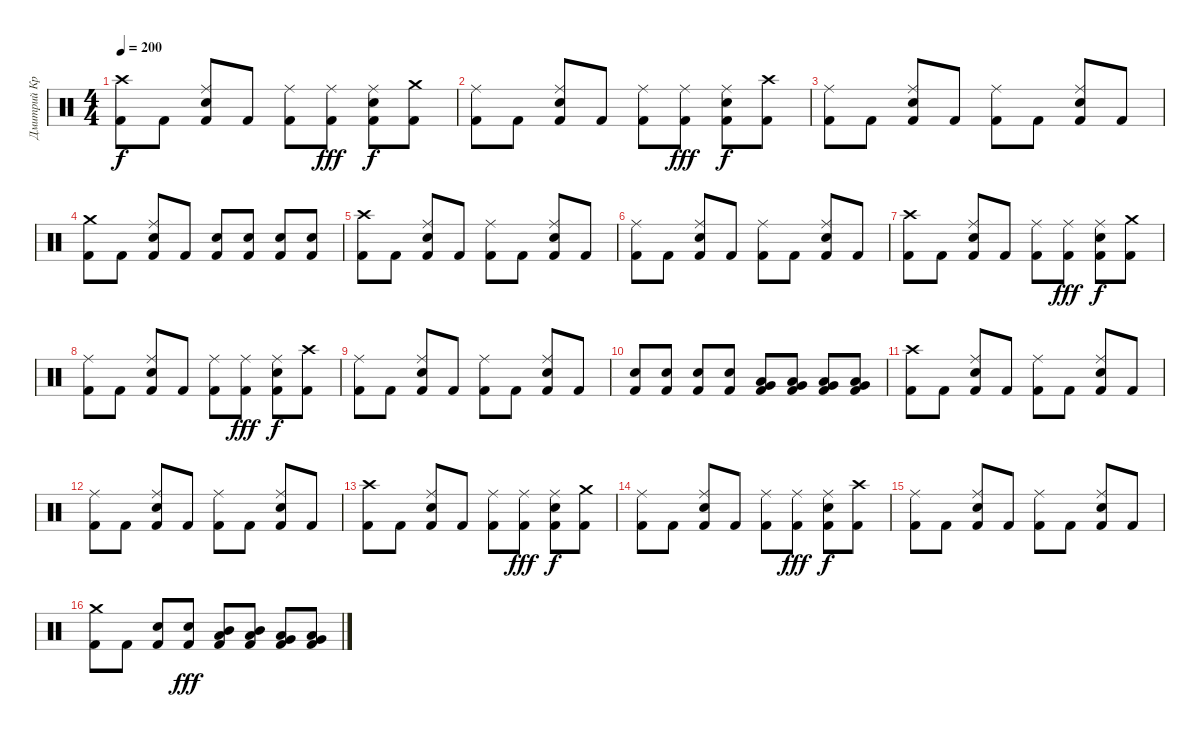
\track ("Дмитрий Кривенков" "Дмитрий Кр") {instrument percussion}
\staff {score}
\articulation defaults
\ts (4 4)
\tempo 200
\clef neutral
\ks c
("Crash high (hit)" "Kick (hit) 2").8{dy f} "Kick (hit) 2".8 ("Ride (middle)" "Electric Snare (hit)" "Kick (hit) 2").8 "Kick (hit) 2".8 ("Ride (middle)" "Kick (hit) 2").8 ("Ride (middle)" "Kick (hit) 2").8{dy fff} ("Ride (middle)" "Electric Snare (hit)" "Kick (hit) 2").8{dy f} ("Crash medium (hit)" "Kick (hit) 2").8 |
("Ride (middle)" "Kick (hit) 2").8 "Kick (hit) 2".8 ("Ride (middle)" "Electric Snare (hit)" "Kick (hit) 2").8 "Kick (hit) 2".8 ("Ride (middle)" "Kick (hit) 2").8 ("Ride (middle)" "Kick (hit) 2").8{dy fff} ("Ride (middle)" "Electric Snare (hit)" "Kick (hit) 2").8{dy f} ("Crash high (hit)" "Kick (hit) 2").8 |
("Ride (middle)" "Kick (hit) 2").8 "Kick (hit) 2".8 ("Ride (middle)" "Electric Snare (hit)" "Kick (hit) 2").8 "Kick (hit) 2".8 ("Ride (middle)" "Kick (hit) 2").8 "Kick (hit) 2".8 ("Ride (middle)" "Electric Snare (hit)" "Kick (hit) 2").8 "Kick (hit) 2".8 |
("Crash medium (hit)" "Kick (hit) 2").8 "Kick (hit) 2".8 ("Ride (middle)" "Electric Snare (hit)" "Kick (hit) 2").8 "Kick (hit) 2".8 ("Electric Snare (hit)" "Kick (hit) 2").8 ("Electric Snare (hit)" "Kick (hit) 2").8 ("Electric Snare (hit)" "Kick (hit) 2").8 ("Electric Snare (hit)" "Kick (hit) 2").8 |
("Crash high (hit)" "Kick (hit) 2").8 "Kick (hit) 2".8 ("Ride (middle)" "Electric Snare (hit)" "Kick (hit) 2").8 "Kick (hit) 2".8 ("Ride (middle)" "Kick (hit) 2").8 "Kick (hit) 2".8 ("Ride (middle)" "Electric Snare (hit)" "Kick (hit) 2").8 "Kick (hit) 2".8 |
("Ride (middle)" "Kick (hit) 2").8 "Kick (hit) 2".8 ("Ride (middle)" "Electric Snare (hit)" "Kick (hit) 2").8 "Kick (hit) 2".8 ("Ride (middle)" "Kick (hit) 2").8 "Kick (hit) 2".8 ("Ride (middle)" "Electric Snare (hit)" "Kick (hit) 2").8 "Kick (hit) 2".8 |
("Crash high (hit)" "Kick (hit) 2").8 "Kick (hit) 2".8 ("Ride (middle)" "Electric Snare (hit)" "Kick (hit) 2").8 "Kick (hit) 2".8 ("Ride (middle)" "Kick (hit) 2").8 ("Ride (middle)" "Kick (hit) 2").8{dy fff} ("Ride (middle)" "Electric Snare (hit)" "Kick (hit) 2").8{dy f} ("Crash medium (hit)" "Kick (hit) 2").8 |
("Ride (middle)" "Kick (hit) 2").8 "Kick (hit) 2".8 ("Ride (middle)" "Electric Snare (hit)" "Kick (hit) 2").8 "Kick (hit) 2".8 ("Ride (middle)" "Kick (hit) 2").8 ("Ride (middle)" "Kick (hit) 2").8{dy fff} ("Ride (middle)" "Electric Snare (hit)" "Kick (hit) 2").8{dy f} ("Crash high (hit)" "Kick (hit) 2").8 |
("Ride (middle)" "Kick (hit) 2").8 "Kick (hit) 2".8 ("Ride (middle)" "Electric Snare (hit)" "Kick (hit) 2").8 "Kick (hit) 2".8 ("Ride (middle)" "Kick (hit) 2").8 "Kick (hit) 2".8 ("Ride (middle)" "Electric Snare (hit)" "Kick (hit) 2").8 "Kick (hit) 2".8 |
("Electric Snare (hit)" "Kick (hit) 2").8 ("Electric Snare (hit)" "Kick (hit) 2").8 ("Electric Snare (hit)" "Kick (hit) 2").8 ("Electric Snare (hit)" "Kick (hit) 2").8 ("Low Tom (hit)" "Very Low Tom (hit)" "Kick (hit) 2").8 ("Low Tom (hit)" "Very Low Tom (hit)" "Kick (hit) 2").8 ("Very Low Tom (hit)" "Low Floor Tom (hit)" "Kick (hit) 2").8 ("Very Low Tom (hit)" "Low Floor Tom (hit)" "Kick (hit) 2").8 |
("Crash high (hit)" "Kick (hit) 2").8 "Kick (hit) 2".8 ("Ride (middle)" "Electric Snare (hit)" "Kick (hit) 2").8 "Kick (hit) 2".8 ("Ride (middle)" "Kick (hit) 2").8 "Kick (hit) 2".8 ("Ride (middle)" "Electric Snare (hit)" "Kick (hit) 2").8 "Kick (hit) 2".8 |
("Ride (middle)" "Kick (hit) 2").8 "Kick (hit) 2".8 ("Ride (middle)" "Electric Snare (hit)" "Kick (hit) 2").8 "Kick (hit) 2".8 ("Ride (middle)" "Kick (hit) 2").8 "Kick (hit) 2".8 ("Ride (middle)" "Electric Snare (hit)" "Kick (hit) 2").8 "Kick (hit) 2".8 |
("Crash high (hit)" "Kick (hit) 2").8 "Kick (hit) 2".8 ("Ride (middle)" "Electric Snare (hit)" "Kick (hit) 2").8 "Kick (hit) 2".8 ("Ride (middle)" "Kick (hit) 2").8 ("Ride (middle)" "Kick (hit) 2").8{dy fff} ("Ride (middle)" "Electric Snare (hit)" "Kick (hit) 2").8{dy f} ("Crash medium (hit)" "Kick (hit) 2").8 |
("Ride (middle)" "Kick (hit) 2").8 "Kick (hit) 2".8 ("Ride (middle)" "Electric Snare (hit)" "Kick (hit) 2").8 "Kick (hit) 2".8 ("Ride (middle)" "Kick (hit) 2").8 ("Ride (middle)" "Kick (hit) 2").8{dy fff} ("Ride (middle)" "Electric Snare (hit)" "Kick (hit) 2").8{dy f} ("Crash high (hit)" "Kick (hit) 2").8 |
("Ride (middle)" "Kick (hit) 2").8 "Kick (hit) 2".8 ("Ride (middle)" "Electric Snare (hit)" "Kick (hit) 2").8 "Kick (hit) 2".8 ("Ride (middle)" "Kick (hit) 2").8 "Kick (hit) 2".8 ("Ride (middle)" "Electric Snare (hit)" "Kick (hit) 2").8 "Kick (hit) 2".8 |
("Crash medium (hit)" "Kick (hit) 2").8 "Kick (hit) 2".8 ("Electric Snare (hit)" "Kick (hit) 2").8 ("Electric Snare (hit)" "Kick (hit) 2").8{dy fff} ("Mid Tom (hit)" "Low Tom (hit)" "Kick (hit) 2").8 ("Mid Tom (hit)" "Low Tom (hit)" "Kick (hit) 2").8 ("Low Tom (hit)" "Very Low Tom (hit)" "Kick (hit) 2").8 ("Low Tom (hit)" "Very Low Tom (hit)" "Kick (hit) 2").8
